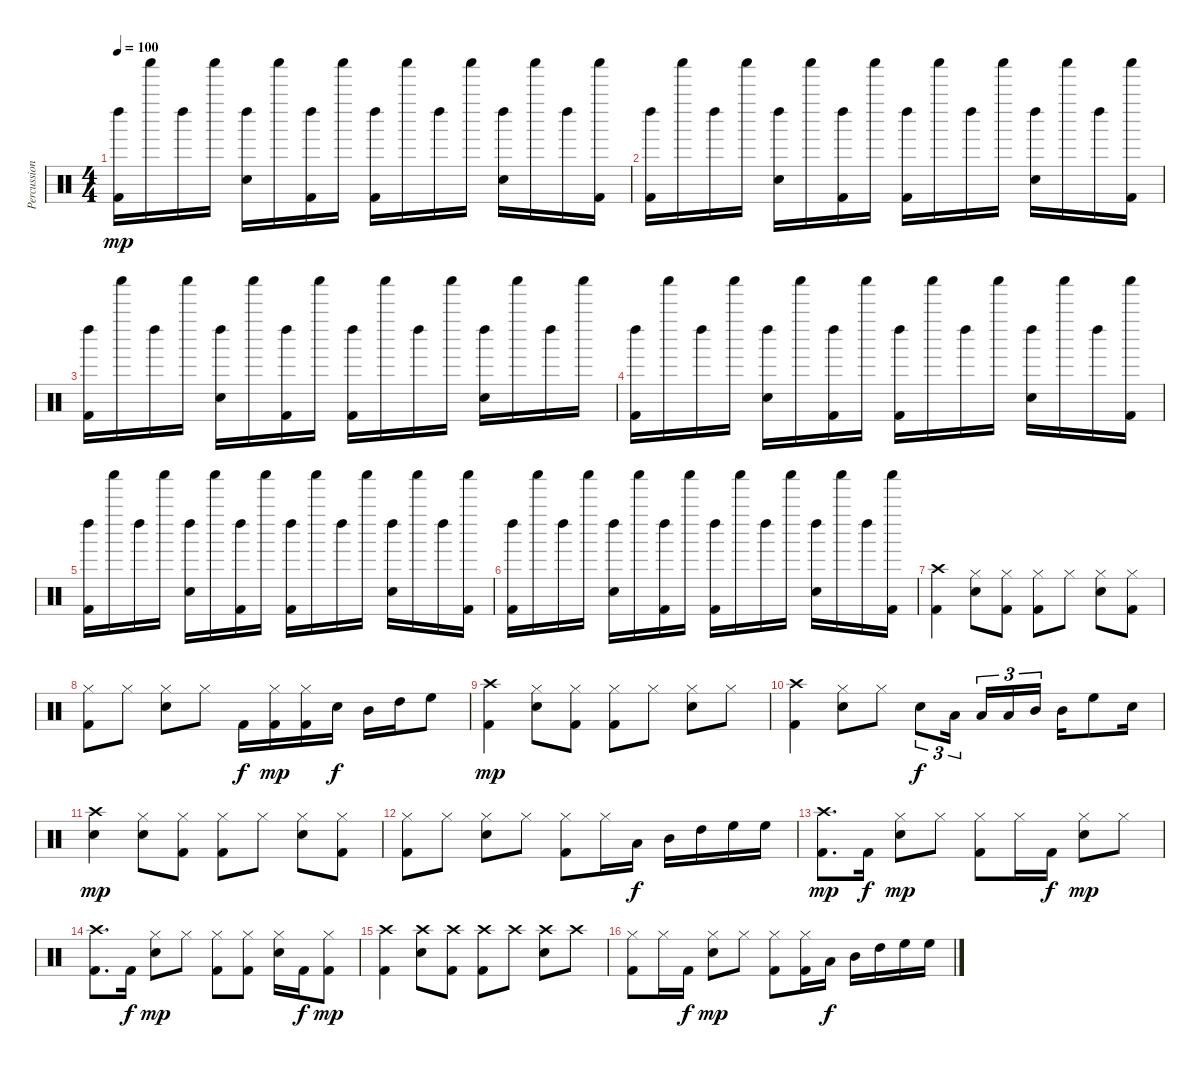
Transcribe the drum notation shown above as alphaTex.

\track ("Percussion" "Percussion") {instrument percussion}
\staff {score}
\articulation defaults
\ts (4 4)
\tempo 100
\clef neutral
\ks c
("Kick (hit) 2" "Left Maraca (hit)").16{dy mp} "Shaker (hit)".16 "Left Maraca (hit)".16 "Shaker (hit)".16 ("Snare (hit) 2" "Left Maraca (hit)").16 "Shaker (hit)".16 ("Kick (hit) 2" "Left Maraca (hit)").16 "Shaker (hit)".16 ("Kick (hit) 2" "Left Maraca (hit)").16 "Shaker (hit)".16 "Left Maraca (hit)".16 "Shaker (hit)".16 ("Snare (hit) 2" "Left Maraca (hit)").16 "Shaker (hit)".16 "Left Maraca (hit)".16 ("Kick (hit) 2" "Shaker (hit)").16 |
("Kick (hit) 2" "Left Maraca (hit)").16 "Shaker (hit)".16 "Left Maraca (hit)".16 "Shaker (hit)".16 ("Snare (hit) 2" "Left Maraca (hit)").16 "Shaker (hit)".16 ("Kick (hit) 2" "Left Maraca (hit)").16 "Shaker (hit)".16 ("Kick (hit) 2" "Left Maraca (hit)").16 "Shaker (hit)".16 "Left Maraca (hit)".16 "Shaker (hit)".16 ("Snare (hit) 2" "Left Maraca (hit)").16 "Shaker (hit)".16 "Left Maraca (hit)".16 ("Kick (hit) 2" "Shaker (hit)").16 |
("Kick (hit) 2" "Left Maraca (hit)").16 "Shaker (hit)".16 "Left Maraca (hit)".16 "Shaker (hit)".16 ("Snare (hit) 2" "Left Maraca (hit)").16 "Shaker (hit)".16 ("Kick (hit) 2" "Left Maraca (hit)").16 "Shaker (hit)".16 ("Kick (hit) 2" "Left Maraca (hit)").16 "Shaker (hit)".16 "Left Maraca (hit)".16 "Shaker (hit)".16 ("Snare (hit) 2" "Left Maraca (hit)").16 "Shaker (hit)".16 "Left Maraca (hit)".16 "Shaker (hit)".16 |
("Kick (hit) 2" "Left Maraca (hit)").16 "Shaker (hit)".16 "Left Maraca (hit)".16 "Shaker (hit)".16 ("Snare (hit) 2" "Left Maraca (hit)").16 "Shaker (hit)".16 ("Kick (hit) 2" "Left Maraca (hit)").16 "Shaker (hit)".16 ("Kick (hit) 2" "Left Maraca (hit)").16 "Shaker (hit)".16 "Left Maraca (hit)".16 "Shaker (hit)".16 ("Snare (hit) 2" "Left Maraca (hit)").16 "Shaker (hit)".16 "Left Maraca (hit)".16 ("Kick (hit) 2" "Shaker (hit)").16 |
("Kick (hit) 2" "Left Maraca (hit)").16 "Shaker (hit)".16 "Left Maraca (hit)".16 "Shaker (hit)".16 ("Snare (hit) 2" "Left Maraca (hit)").16 "Shaker (hit)".16 ("Kick (hit) 2" "Left Maraca (hit)").16 "Shaker (hit)".16 ("Kick (hit) 2" "Left Maraca (hit)").16 "Shaker (hit)".16 "Left Maraca (hit)".16 "Shaker (hit)".16 ("Snare (hit) 2" "Left Maraca (hit)").16 "Shaker (hit)".16 "Left Maraca (hit)".16 ("Kick (hit) 2" "Shaker (hit)").16 |
("Kick (hit) 2" "Left Maraca (hit)").16 "Shaker (hit)".16 "Left Maraca (hit)".16 "Shaker (hit)".16 ("Snare (hit) 2" "Left Maraca (hit)").16 "Shaker (hit)".16 ("Kick (hit) 2" "Left Maraca (hit)").16 "Shaker (hit)".16 ("Kick (hit) 2" "Left Maraca (hit)").16 "Shaker (hit)".16 "Left Maraca (hit)".16 "Shaker (hit)".16 ("Snare (hit) 2" "Left Maraca (hit)").16 "Shaker (hit)".16 "Left Maraca (hit)".16 ("Kick (hit) 2" "Shaker (hit)").16 |
("Kick (hit) 2" "Crash high (hit)").4 ("Snare (hit) 2" "Hi-Hat (closed)").8 ("Kick (hit) 2" "Hi-Hat (closed)").8 ("Kick (hit) 2" "Hi-Hat (closed)").8 "Hi-Hat (closed)".8 ("Snare (hit) 2" "Hi-Hat (closed)").8 ("Kick (hit) 2" "Hi-Hat (closed)").8 |
("Kick (hit) 2" "Hi-Hat (closed)").8 "Hi-Hat (closed)".8 ("Snare (hit) 2" "Hi-Hat (closed)").8 "Hi-Hat (closed)".8 "Kick (hit) 2".16{dy f} ("Kick (hit) 2" "Hi-Hat (closed)").16{dy mp} ("Kick (hit) 2" "Hi-Hat (closed)").16 "Snare (hit) 2".16{dy f} "Mid Tom (hit)".16 "High Tom (hit)".16 "High Floor Tom (hit)".8 |
("Kick (hit) 2" "Crash high (hit)").4{dy mp} ("Snare (hit) 2" "Hi-Hat (closed)").8 ("Kick (hit) 2" "Hi-Hat (closed)").8 ("Kick (hit) 2" "Hi-Hat (closed)").8 "Hi-Hat (closed)".8 ("Snare (hit) 2" "Hi-Hat (closed)").8 "Hi-Hat (closed)".8 |
("Kick (hit) 2" "Crash high (hit)").4 ("Snare (hit) 2" "Hi-Hat (closed)").8 "Hi-Hat (closed)".8 "Snare (hit) 2".8{tu (3 2) dy f} "Low Tom (hit)".16{tu (3 2)} "Low Tom (hit)".16{tu (3 2)} "Low Tom (hit)".16{tu (3 2)} "Mid Tom (hit)".16{tu (3 2)} "Mid Tom (hit)".16 "High Floor Tom (hit)".8 "Snare (hit) 2".16 |
("Snare (hit) 2" "Crash high (hit)").4{dy mp} ("Snare (hit) 2" "Hi-Hat (closed)").8 ("Kick (hit) 2" "Hi-Hat (closed)").8 ("Kick (hit) 2" "Hi-Hat (closed)").8 "Hi-Hat (closed)".8 ("Snare (hit) 2" "Hi-Hat (closed)").8 ("Kick (hit) 2" "Hi-Hat (closed)").8 |
("Kick (hit) 2" "Hi-Hat (closed)").8 "Hi-Hat (closed)".8 ("Snare (hit) 2" "Hi-Hat (closed)").8 "Hi-Hat (closed)".8 ("Kick (hit) 2" "Hi-Hat (closed)").8 "Hi-Hat (closed)".16 "Low Tom (hit)".16{dy f} "Mid Tom (hit)".16 "High Tom (hit)".16 "High Floor Tom (hit)".16 "High Floor Tom (hit)".16 |
("Kick (hit) 2" "Crash high (hit)").8{d dy mp} "Kick (hit) 2".16{dy f} ("Snare (hit) 2" "Hi-Hat (closed)").8{dy mp} "Hi-Hat (closed)".8 ("Kick (hit) 2" "Hi-Hat (closed)").8 "Hi-Hat (closed)".16 "Kick (hit) 2".16{dy f} ("Snare (hit) 2" "Hi-Hat (closed)").8{dy mp} "Hi-Hat (closed)".8 |
("Kick (hit) 2" "Crash high (hit)").8{d} "Kick (hit) 2".16{dy f} ("Snare (hit) 2" "Hi-Hat (closed)").8{dy mp} "Hi-Hat (closed)".8 ("Kick (hit) 2" "Hi-Hat (closed)").8 ("Kick (hit) 2" "Hi-Hat (closed)").8 ("Snare (hit) 2" "Hi-Hat (closed)").16 "Kick (hit) 2".16{dy f} ("Kick (hit) 2" "Hi-Hat (closed)").8{dy mp} |
("Kick (hit) 2" "Crash high (hit)").4 ("Snare (hit) 2" "Crash high (hit)").8 ("Kick (hit) 2" "Crash high (hit)").8 ("Kick (hit) 2" "Crash high (hit)").8 "Crash high (hit)".8 ("Snare (hit) 2" "Crash high (hit)").8 "Crash high (hit)".8 |
("Kick (hit) 2" "Hi-Hat (closed)").8 "Hi-Hat (closed)".16 "Kick (hit) 2".16{dy f} ("Snare (hit) 2" "Hi-Hat (closed)").8{dy mp} "Hi-Hat (closed)".8 ("Kick (hit) 2" "Hi-Hat (closed)").8 ("Kick (hit) 2" "Hi-Hat (closed)").16 "Low Tom (hit)".16{dy f} "Mid Tom (hit)".16 "High Tom (hit)".16 "High Floor Tom (hit)".16 "High Floor Tom (hit)".16
